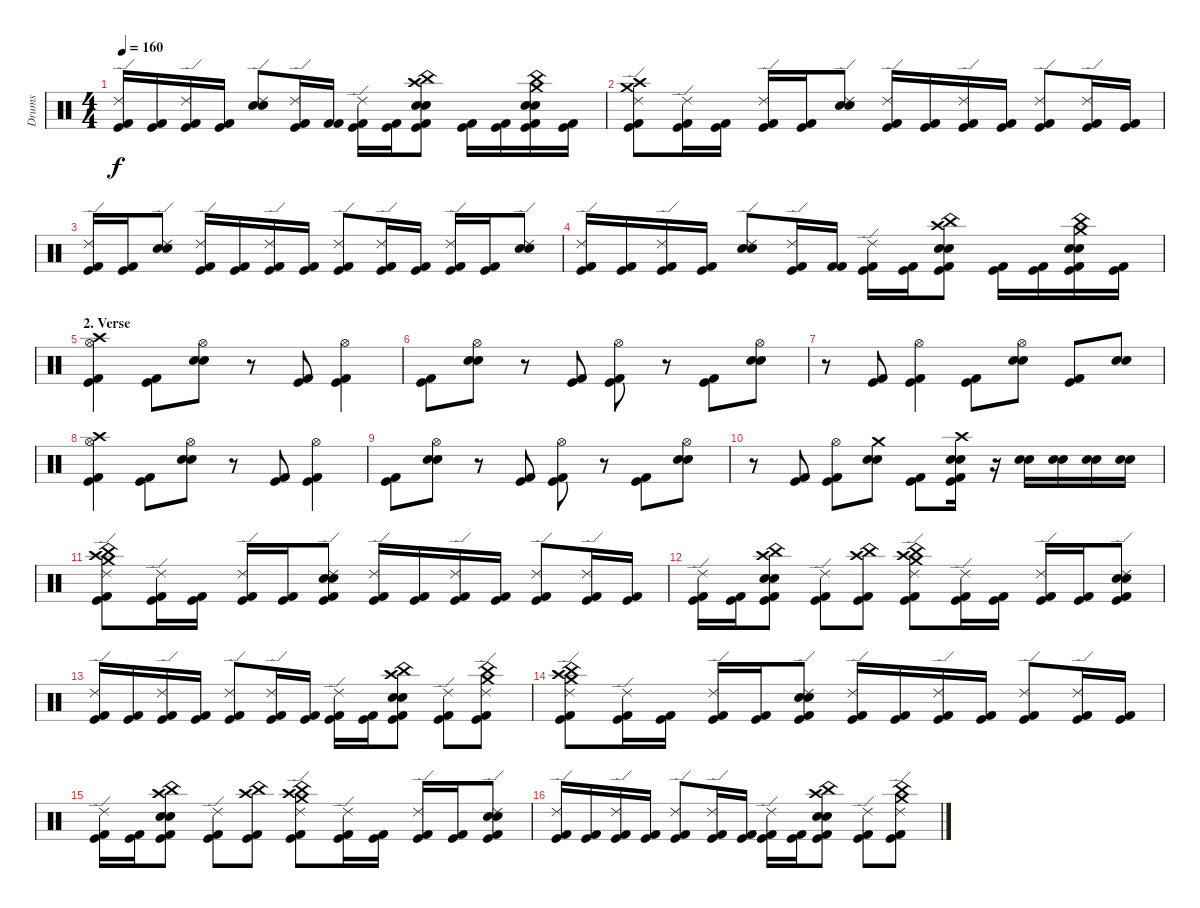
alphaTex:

\track ("Drums" "Drums") {instrument percussion}
\staff {score}
\articulation defaults
\ts (4 4)
\tempo 160
\clef neutral
\ks c
("Ride (edge) 2" "Kick (hit) 2" "Kick (hit)").16{dy f} ("Kick (hit) 2" "Kick (hit)").16 ("Ride (edge) 2" "Kick (hit)" "Kick (hit) 2").16 ("Kick (hit)" "Kick (hit) 2").16 ("Ride (edge) 2" "Electric Snare (hit)" "Snare (hit) 2").8 ("Ride (edge) 2" "Kick (hit)" "Kick (hit) 2").16 ("Kick (hit) 2" "Kick (hit) 2").16 ("Ride (edge) 2" "Kick (hit) 2" "Kick (hit)").16 ("Kick (hit) 2" "Kick (hit)").16 ("China (hit)" "Crash high (hit)" "Snare (hit) 2" "Electric Snare (hit)" "Kick (hit) 2" "Kick (hit)").8 ("Kick (hit) 2" "Kick (hit)").16 ("Kick (hit) 2" "Kick (hit)").16 ("China (hit)" "Crash medium (hit)" "Electric Snare (hit)" "Snare (hit) 2" "Kick (hit) 2" "Kick (hit)").16 ("Kick (hit) 2" "Kick (hit)").16 |
("Crash medium (hit)" "Ride (edge) 2" "Crash high (hit)" "Kick (hit) 2" "Kick (hit)").8 ("Ride (edge) 2" "Kick (hit) 2" "Kick (hit)").16 ("Kick (hit) 2" "Kick (hit)").16 ("Ride (edge) 2" "Kick (hit) 2" "Kick (hit)").16 ("Kick (hit) 2" "Kick (hit)").16 ("Ride (edge) 2" "Electric Snare (hit)" "Snare (hit) 2").8 ("Ride (edge) 2" "Kick (hit) 2" "Kick (hit)").16 ("Kick (hit) 2" "Kick (hit)").16 ("Ride (edge) 2" "Kick (hit) 2" "Kick (hit)").16 ("Kick (hit) 2" "Kick (hit)").16 ("Ride (edge) 2" "Kick (hit) 2" "Kick (hit)").8 ("Ride (edge) 2" "Kick (hit) 2" "Kick (hit)").16 ("Kick (hit) 2" "Kick (hit)").16 |
("Ride (edge) 2" "Kick (hit) 2" "Kick (hit)").16 ("Kick (hit)" "Kick (hit) 2").16 ("Ride (edge) 2" "Electric Snare (hit)" "Snare (hit) 2").8 ("Ride (edge) 2" "Kick (hit) 2" "Kick (hit)").16 ("Kick (hit) 2" "Kick (hit)").16 ("Ride (edge) 2" "Kick (hit) 2" "Kick (hit)").16 ("Kick (hit) 2" "Kick (hit)").16 ("Ride (edge) 2" "Kick (hit) 2" "Kick (hit)").8 ("Ride (edge) 2" "Kick (hit) 2" "Kick (hit)").16 ("Kick (hit)" "Kick (hit) 2").16 ("Ride (edge) 2" "Kick (hit) 2" "Kick (hit)").16 ("Kick (hit) 2" "Kick (hit)").16 ("Ride (edge) 2" "Electric Snare (hit)" "Snare (hit) 2").8 |
("Ride (edge) 2" "Kick (hit) 2" "Kick (hit)").16 ("Kick (hit) 2" "Kick (hit)").16 ("Ride (edge) 2" "Kick (hit)" "Kick (hit) 2").16 ("Kick (hit)" "Kick (hit) 2").16 ("Ride (edge) 2" "Electric Snare (hit)" "Snare (hit) 2").8 ("Ride (edge) 2" "Kick (hit)" "Kick (hit) 2").16 ("Kick (hit) 2" "Kick (hit) 2").16 ("Ride (edge) 2" "Kick (hit) 2" "Kick (hit)").16 ("Kick (hit) 2" "Kick (hit)").16 ("China (hit)" "Crash high (hit)" "Snare (hit) 2" "Electric Snare (hit)" "Kick (hit) 2" "Kick (hit)").8 ("Kick (hit) 2" "Kick (hit)").16 ("Kick (hit) 2" "Kick (hit)").16 ("China (hit)" "Crash medium (hit)" "Electric Snare (hit)" "Snare (hit) 2" "Kick (hit) 2" "Kick (hit)").16 ("Kick (hit) 2" "Kick (hit)").16 |
\section ("" "2. Verse")
("Crash high (hit)" "Hi-Hat (open)" "Kick (hit) 2" "Kick (hit)").4 ("Kick (hit) 2" "Kick (hit)").8 ("Hi-Hat (open)" "Snare (hit) 2" "Electric Snare (hit)").8 r.8 ("Kick (hit) 2" "Kick (hit)").8 ("Hi-Hat (open)" "Kick (hit) 2" "Kick (hit)").4 |
("Kick (hit) 2" "Kick (hit)").8 ("Hi-Hat (open)" "Electric Snare (hit)" "Snare (hit) 2").8 r.8 ("Kick (hit) 2" "Kick (hit)").8 ("Hi-Hat (open)" "Kick (hit) 2" "Kick (hit)").8 r.8 ("Kick (hit)" "Kick (hit) 2").8 ("Hi-Hat (open)" "Electric Snare (hit)" "Snare (hit) 2").8 |
r.8 ("Kick (hit) 2" "Kick (hit)").8 ("Hi-Hat (open)" "Kick (hit) 2" "Kick (hit)").4 ("Kick (hit) 2" "Kick (hit)").8 ("Hi-Hat (open)" "Electric Snare (hit)" "Snare (hit) 2").8 ("Kick (hit) 2" "Kick (hit)").8 ("Electric Snare (hit)" "Snare (hit) 2").8 |
("Crash high (hit)" "Hi-Hat (open)" "Kick (hit) 2" "Kick (hit)").4 ("Kick (hit) 2" "Kick (hit)").8 ("Hi-Hat (open)" "Snare (hit) 2" "Electric Snare (hit)").8 r.8 ("Kick (hit) 2" "Kick (hit)").8 ("Hi-Hat (open)" "Kick (hit) 2" "Kick (hit)").4 |
("Kick (hit) 2" "Kick (hit)").8 ("Hi-Hat (open)" "Electric Snare (hit)" "Snare (hit) 2").8 r.8 ("Kick (hit) 2" "Kick (hit)").8 ("Hi-Hat (open)" "Kick (hit) 2" "Kick (hit)").8 r.8 ("Kick (hit)" "Kick (hit) 2").8 ("Hi-Hat (open)" "Electric Snare (hit)" "Snare (hit) 2").8 |
r.8 ("Kick (hit) 2" "Kick (hit)").8 ("Hi-Hat (open)" "Kick (hit) 2" "Kick (hit)").8 ("Crash medium (hit)" "Electric Snare (hit)" "Snare (hit) 2").8 ("Kick (hit) 2" "Kick (hit)").8 ("Crash high (hit)" "Electric Snare (hit)" "Snare (hit) 2" "Kick (hit) 2" "Kick (hit)").16 r.16 ("Electric Snare (hit)" "Snare (hit) 2").16 ("Electric Snare (hit)" "Snare (hit) 2").16 ("Electric Snare (hit)" "Snare (hit) 2").16 ("Snare (hit) 2" "Electric Snare (hit)").16 |
("Crash high (hit)" "Crash medium (hit)" "China (hit)" "Ride (edge) 2" "Kick (hit)" "Kick (hit) 2").8 ("Ride (edge) 2" "Kick (hit) 2" "Kick (hit)").16 ("Kick (hit) 2" "Kick (hit)").16 ("Ride (edge) 2" "Kick (hit) 2" "Kick (hit)").16 ("Kick (hit) 2" "Kick (hit)").16 ("Ride (edge) 2" "Electric Snare (hit)" "Snare (hit) 2" "Kick (hit)" "Kick (hit) 2").8 ("Ride (edge) 2" "Kick (hit) 2" "Kick (hit)").16 ("Kick (hit) 2" "Kick (hit)").16 ("Ride (edge) 2" "Kick (hit) 2" "Kick (hit)").16 ("Kick (hit) 2" "Kick (hit)").16 ("Ride (edge) 2" "Kick (hit) 2" "Kick (hit)").8 ("Ride (edge) 2" "Kick (hit) 2" "Kick (hit)").16 ("Kick (hit) 2" "Kick (hit)").16 |
("Ride (edge) 2" "Kick (hit) 2" "Kick (hit)").16 ("Kick (hit) 2" "Kick (hit)").16 ("China (hit)" "Crash high (hit)" "Electric Snare (hit)" "Snare (hit) 2" "Kick (hit) 2" "Kick (hit)").8 ("Ride (edge) 2" "Kick (hit) 2" "Kick (hit)").8 ("Crash high (hit)" "China (hit)" "Kick (hit) 2" "Kick (hit)").8 ("Crash medium (hit)" "Crash high (hit)" "China (hit)" "Ride (edge) 2" "Kick (hit) 2" "Kick (hit)").8 ("Ride (edge) 2" "Kick (hit) 2" "Kick (hit)").16 ("Kick (hit) 2" "Kick (hit)").16 ("Ride (edge) 2" "Kick (hit) 2" "Kick (hit)").16 ("Kick (hit) 2" "Kick (hit)").16 ("Ride (edge) 2" "Electric Snare (hit)" "Snare (hit) 2" "Kick (hit) 2" "Kick (hit)").8 |
("Ride (edge) 2" "Kick (hit) 2" "Kick (hit)").16 ("Kick (hit) 2" "Kick (hit)").16 ("Ride (edge) 2" "Kick (hit) 2" "Kick (hit)").16 ("Kick (hit) 2" "Kick (hit)").16 ("Ride (edge) 2" "Kick (hit) 2" "Kick (hit)").8 ("Ride (edge) 2" "Kick (hit) 2" "Kick (hit)").16 ("Kick (hit) 2" "Kick (hit)").16 ("Ride (edge) 2" "Kick (hit) 2" "Kick (hit)").16 ("Kick (hit) 2" "Kick (hit)").16 ("Crash high (hit)" "China (hit)" "Electric Snare (hit)" "Snare (hit) 2" "Kick (hit) 2" "Kick (hit)").8 ("Ride (edge) 2" "Kick (hit) 2" "Kick (hit)").8 ("Crash medium (hit)" "China (hit)" "Ride (edge) 2" "Kick (hit) 2" "Kick (hit)").8 |
("Crash high (hit)" "Crash medium (hit)" "China (hit)" "Ride (edge) 2" "Kick (hit)" "Kick (hit) 2").8 ("Ride (edge) 2" "Kick (hit) 2" "Kick (hit)").16 ("Kick (hit) 2" "Kick (hit)").16 ("Ride (edge) 2" "Kick (hit) 2" "Kick (hit)").16 ("Kick (hit) 2" "Kick (hit)").16 ("Ride (edge) 2" "Electric Snare (hit)" "Snare (hit) 2" "Kick (hit)" "Kick (hit) 2").8 ("Ride (edge) 2" "Kick (hit) 2" "Kick (hit)").16 ("Kick (hit) 2" "Kick (hit)").16 ("Ride (edge) 2" "Kick (hit) 2" "Kick (hit)").16 ("Kick (hit) 2" "Kick (hit)").16 ("Ride (edge) 2" "Kick (hit) 2" "Kick (hit)").8 ("Ride (edge) 2" "Kick (hit) 2" "Kick (hit)").16 ("Kick (hit) 2" "Kick (hit)").16 |
("Ride (edge) 2" "Kick (hit) 2" "Kick (hit)").16 ("Kick (hit) 2" "Kick (hit)").16 ("China (hit)" "Crash high (hit)" "Electric Snare (hit)" "Snare (hit) 2" "Kick (hit) 2" "Kick (hit)").8 ("Ride (edge) 2" "Kick (hit) 2" "Kick (hit)").8 ("Crash high (hit)" "China (hit)" "Kick (hit) 2" "Kick (hit)").8 ("Crash medium (hit)" "Crash high (hit)" "China (hit)" "Ride (edge) 2" "Kick (hit) 2" "Kick (hit)").8 ("Ride (edge) 2" "Kick (hit) 2" "Kick (hit)").16 ("Kick (hit) 2" "Kick (hit)").16 ("Ride (edge) 2" "Kick (hit) 2" "Kick (hit)").16 ("Kick (hit) 2" "Kick (hit)").16 ("Ride (edge) 2" "Electric Snare (hit)" "Snare (hit) 2" "Kick (hit) 2" "Kick (hit)").8 |
("Ride (edge) 2" "Kick (hit) 2" "Kick (hit)").16 ("Kick (hit) 2" "Kick (hit)").16 ("Ride (edge) 2" "Kick (hit) 2" "Kick (hit)").16 ("Kick (hit) 2" "Kick (hit)").16 ("Ride (edge) 2" "Kick (hit) 2" "Kick (hit)").8 ("Ride (edge) 2" "Kick (hit) 2" "Kick (hit)").16 ("Kick (hit) 2" "Kick (hit)").16 ("Ride (edge) 2" "Kick (hit) 2" "Kick (hit)").16 ("Kick (hit) 2" "Kick (hit)").16 ("Crash high (hit)" "China (hit)" "Electric Snare (hit)" "Snare (hit) 2" "Kick (hit) 2" "Kick (hit)").8 ("Ride (edge) 2" "Kick (hit) 2" "Kick (hit)").8 ("Crash medium (hit)" "China (hit)" "Ride (edge) 2" "Kick (hit) 2" "Kick (hit)").8
